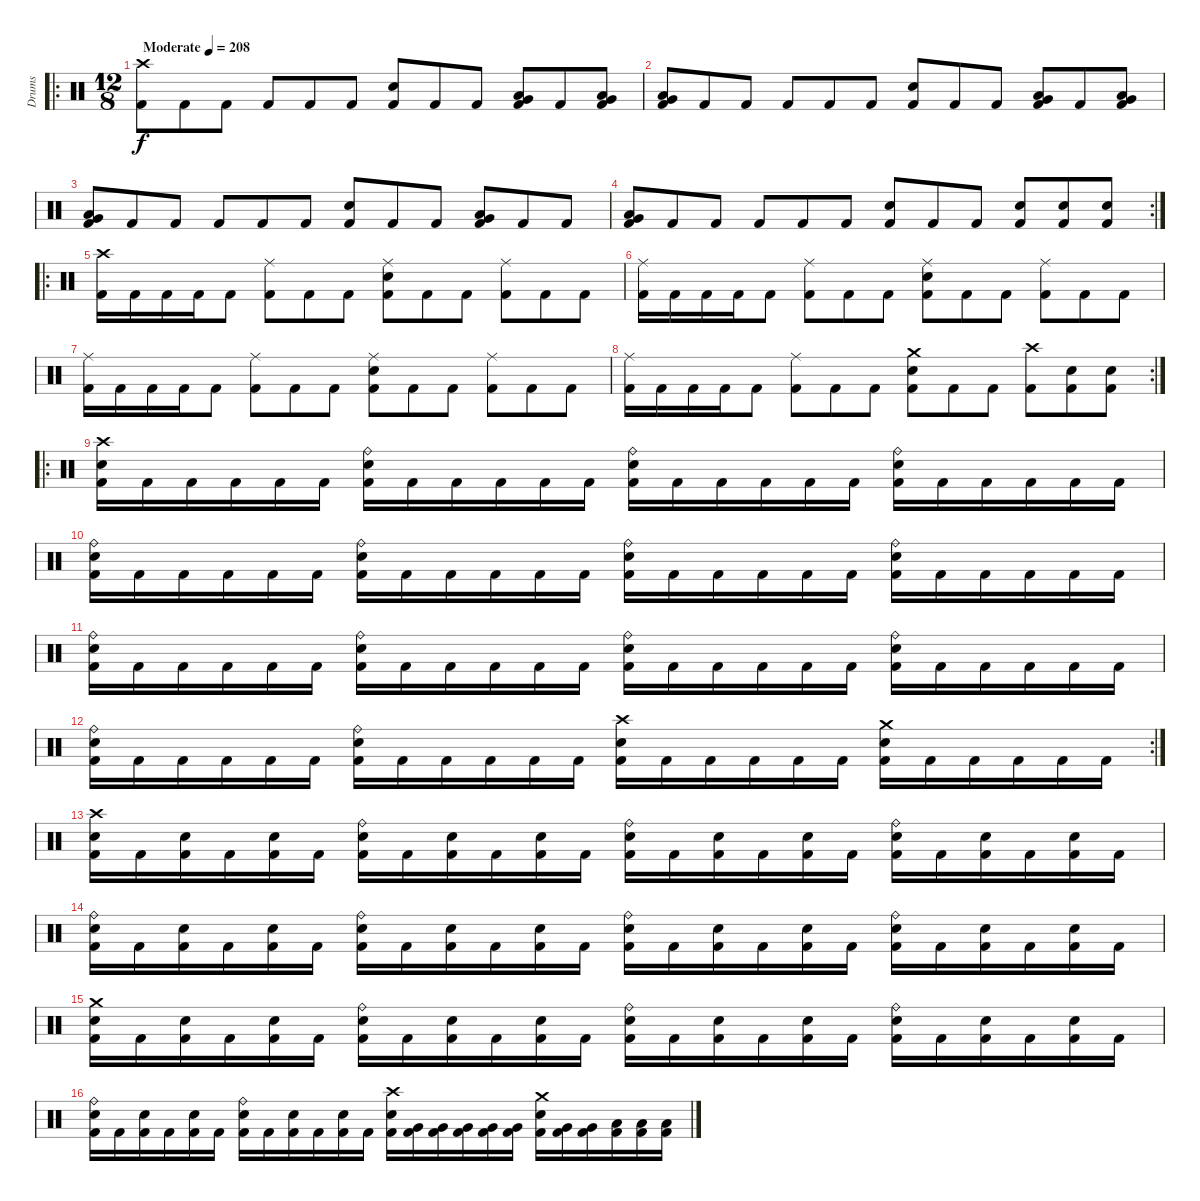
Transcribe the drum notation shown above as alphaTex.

\track ("Drums" "Drums") {instrument percussion}
\staff {score}
\articulation defaults
\ro
\ts (12 8)
\tempo (208 "Moderate")
\clef neutral
\ks c
("Crash high (hit)" "Kick (hit) 2").8{dy f} "Kick (hit) 2".8 "Kick (hit) 2".8 "Kick (hit) 2".8 "Kick (hit) 2".8 "Kick (hit) 2".8 ("Electric Snare (hit)" "Kick (hit) 2").8 "Kick (hit) 2".8 "Kick (hit) 2".8 ("Low Tom (hit)" "Very Low Tom (hit)" "Kick (hit) 2").8 "Kick (hit) 2".8 ("Low Tom (hit)" "Very Low Tom (hit)" "Kick (hit) 2").8 |
("Very Low Tom (hit)" "Low Floor Tom (hit)" "Kick (hit) 2").8 "Kick (hit) 2".8 "Kick (hit) 2".8 "Kick (hit) 2".8 "Kick (hit) 2".8 "Kick (hit) 2".8 ("Electric Snare (hit)" "Kick (hit) 2").8 "Kick (hit) 2".8 "Kick (hit) 2".8 ("Low Tom (hit)" "Very Low Tom (hit)" "Kick (hit) 2").8 "Kick (hit) 2".8 ("Low Tom (hit)" "Very Low Tom (hit)" "Kick (hit) 2").8 |
("Low Tom (hit)" "Very Low Tom (hit)" "Kick (hit) 2").8 "Kick (hit) 2".8 "Kick (hit) 2".8 "Kick (hit) 2".8 "Kick (hit) 2".8 "Kick (hit) 2".8 ("Electric Snare (hit)" "Kick (hit) 2").8 "Kick (hit) 2".8 "Kick (hit) 2".8 ("Low Tom (hit)" "Very Low Tom (hit)" "Kick (hit) 2").8 "Kick (hit) 2".8 "Kick (hit) 2".8 |
\rc 2
("Very Low Tom (hit)" "Low Floor Tom (hit)" "Kick (hit) 2").8 "Kick (hit) 2".8 "Kick (hit) 2".8 "Kick (hit) 2".8 "Kick (hit) 2".8 "Kick (hit) 2".8 ("Electric Snare (hit)" "Kick (hit) 2").8 "Kick (hit) 2".8 "Kick (hit) 2".8 ("Electric Snare (hit)" "Kick (hit) 2").8 ("Electric Snare (hit)" "Kick (hit) 2").8 ("Electric Snare (hit)" "Kick (hit) 2").8 |
\ro
("Crash high (hit)" "Kick (hit) 2").16 "Kick (hit) 2".16 "Kick (hit) 2".16 "Kick (hit) 2".16 "Kick (hit) 2".8 ("Ride (middle)" "Kick (hit) 2").8 "Kick (hit) 2".8 "Kick (hit) 2".8 ("Ride (middle)" "Electric Snare (hit)" "Kick (hit) 2").8 "Kick (hit) 2".8 "Kick (hit) 2".8 ("Ride (middle)" "Kick (hit) 2").8 "Kick (hit) 2".8 "Kick (hit) 2".8 |
("Ride (middle)" "Kick (hit) 2").16 "Kick (hit) 2".16 "Kick (hit) 2".16 "Kick (hit) 2".16 "Kick (hit) 2".8 ("Ride (middle)" "Kick (hit) 2").8 "Kick (hit) 2".8 "Kick (hit) 2".8 ("Ride (middle)" "Electric Snare (hit)" "Kick (hit) 2").8 "Kick (hit) 2".8 "Kick (hit) 2".8 ("Ride (middle)" "Kick (hit) 2").8 "Kick (hit) 2".8 "Kick (hit) 2".8 |
("Ride (middle)" "Kick (hit) 2").16 "Kick (hit) 2".16 "Kick (hit) 2".16 "Kick (hit) 2".16 "Kick (hit) 2".8 ("Ride (middle)" "Kick (hit) 2").8 "Kick (hit) 2".8 "Kick (hit) 2".8 ("Ride (middle)" "Electric Snare (hit)" "Kick (hit) 2").8 "Kick (hit) 2".8 "Kick (hit) 2".8 ("Ride (middle)" "Kick (hit) 2").8 "Kick (hit) 2".8 "Kick (hit) 2".8 |
\rc 2
("Ride (middle)" "Kick (hit) 2").16 "Kick (hit) 2".16 "Kick (hit) 2".16 "Kick (hit) 2".16 "Kick (hit) 2".8 ("Ride (middle)" "Kick (hit) 2").8 "Kick (hit) 2".8 "Kick (hit) 2".8 ("Crash medium (hit)" "Electric Snare (hit)" "Kick (hit) 2").8 "Kick (hit) 2".8 "Kick (hit) 2".8 ("Crash high (hit)" "Kick (hit) 2").8 ("Electric Snare (hit)" "Kick (hit) 2").8 ("Electric Snare (hit)" "Kick (hit) 2").8 |
\ro
("Crash high (hit)" "Electric Snare (hit)" "Kick (hit) 2").16 "Kick (hit) 2".16 "Kick (hit) 2".16 "Kick (hit) 2".16 "Kick (hit) 2".16 "Kick (hit) 2".16 ("Ride (bell)" "Electric Snare (hit)" "Kick (hit) 2").16 "Kick (hit) 2".16 "Kick (hit) 2".16 "Kick (hit) 2".16 "Kick (hit) 2".16 "Kick (hit) 2".16 ("Ride (bell)" "Electric Snare (hit)" "Kick (hit) 2").16 "Kick (hit) 2".16 "Kick (hit) 2".16 "Kick (hit) 2".16 "Kick (hit) 2".16 "Kick (hit) 2".16 ("Ride (bell)" "Electric Snare (hit)" "Kick (hit) 2").16 "Kick (hit) 2".16 "Kick (hit) 2".16 "Kick (hit) 2".16 "Kick (hit) 2".16 "Kick (hit) 2".16 |
("Ride (bell)" "Electric Snare (hit)" "Kick (hit) 2").16 "Kick (hit) 2".16 "Kick (hit) 2".16 "Kick (hit) 2".16 "Kick (hit) 2".16 "Kick (hit) 2".16 ("Ride (bell)" "Electric Snare (hit)" "Kick (hit) 2").16 "Kick (hit) 2".16 "Kick (hit) 2".16 "Kick (hit) 2".16 "Kick (hit) 2".16 "Kick (hit) 2".16 ("Ride (bell)" "Electric Snare (hit)" "Kick (hit) 2").16 "Kick (hit) 2".16 "Kick (hit) 2".16 "Kick (hit) 2".16 "Kick (hit) 2".16 "Kick (hit) 2".16 ("Ride (bell)" "Electric Snare (hit)" "Kick (hit) 2").16 "Kick (hit) 2".16 "Kick (hit) 2".16 "Kick (hit) 2".16 "Kick (hit) 2".16 "Kick (hit) 2".16 |
("Ride (bell)" "Electric Snare (hit)" "Kick (hit) 2").16 "Kick (hit) 2".16 "Kick (hit) 2".16 "Kick (hit) 2".16 "Kick (hit) 2".16 "Kick (hit) 2".16 ("Ride (bell)" "Electric Snare (hit)" "Kick (hit) 2").16 "Kick (hit) 2".16 "Kick (hit) 2".16 "Kick (hit) 2".16 "Kick (hit) 2".16 "Kick (hit) 2".16 ("Ride (bell)" "Electric Snare (hit)" "Kick (hit) 2").16 "Kick (hit) 2".16 "Kick (hit) 2".16 "Kick (hit) 2".16 "Kick (hit) 2".16 "Kick (hit) 2".16 ("Ride (bell)" "Electric Snare (hit)" "Kick (hit) 2").16 "Kick (hit) 2".16 "Kick (hit) 2".16 "Kick (hit) 2".16 "Kick (hit) 2".16 "Kick (hit) 2".16 |
\rc 2
("Ride (bell)" "Electric Snare (hit)" "Kick (hit) 2").16 "Kick (hit) 2".16 "Kick (hit) 2".16 "Kick (hit) 2".16 "Kick (hit) 2".16 "Kick (hit) 2".16 ("Ride (bell)" "Electric Snare (hit)" "Kick (hit) 2").16 "Kick (hit) 2".16 "Kick (hit) 2".16 "Kick (hit) 2".16 "Kick (hit) 2".16 "Kick (hit) 2".16 ("Crash high (hit)" "Electric Snare (hit)" "Kick (hit) 2").16 "Kick (hit) 2".16 "Kick (hit) 2".16 "Kick (hit) 2".16 "Kick (hit) 2".16 "Kick (hit) 2".16 ("Crash medium (hit)" "Electric Snare (hit)" "Kick (hit) 2").16 "Kick (hit) 2".16 "Kick (hit) 2".16 "Kick (hit) 2".16 "Kick (hit) 2".16 "Kick (hit) 2".16 |
("Crash high (hit)" "Electric Snare (hit)" "Kick (hit) 2").16 "Kick (hit) 2".16 ("Electric Snare (hit)" "Kick (hit) 2").16 "Kick (hit) 2".16 ("Electric Snare (hit)" "Kick (hit) 2").16 "Kick (hit) 2".16 ("Ride (bell)" "Electric Snare (hit)" "Kick (hit) 2").16 "Kick (hit) 2".16 ("Electric Snare (hit)" "Kick (hit) 2").16 "Kick (hit) 2".16 ("Electric Snare (hit)" "Kick (hit) 2").16 "Kick (hit) 2".16 ("Ride (bell)" "Electric Snare (hit)" "Kick (hit) 2").16 "Kick (hit) 2".16 ("Electric Snare (hit)" "Kick (hit) 2").16 "Kick (hit) 2".16 ("Electric Snare (hit)" "Kick (hit) 2").16 "Kick (hit) 2".16 ("Ride (bell)" "Electric Snare (hit)" "Kick (hit) 2").16 "Kick (hit) 2".16 ("Electric Snare (hit)" "Kick (hit) 2").16 "Kick (hit) 2".16 ("Electric Snare (hit)" "Kick (hit) 2").16 "Kick (hit) 2".16 |
("Ride (bell)" "Electric Snare (hit)" "Kick (hit) 2").16 "Kick (hit) 2".16 ("Electric Snare (hit)" "Kick (hit) 2").16 "Kick (hit) 2".16 ("Electric Snare (hit)" "Kick (hit) 2").16 "Kick (hit) 2".16 ("Ride (bell)" "Electric Snare (hit)" "Kick (hit) 2").16 "Kick (hit) 2".16 ("Electric Snare (hit)" "Kick (hit) 2").16 "Kick (hit) 2".16 ("Electric Snare (hit)" "Kick (hit) 2").16 "Kick (hit) 2".16 ("Ride (bell)" "Electric Snare (hit)" "Kick (hit) 2").16 "Kick (hit) 2".16 ("Electric Snare (hit)" "Kick (hit) 2").16 "Kick (hit) 2".16 ("Electric Snare (hit)" "Kick (hit) 2").16 "Kick (hit) 2".16 ("Ride (bell)" "Electric Snare (hit)" "Kick (hit) 2").16 "Kick (hit) 2".16 ("Electric Snare (hit)" "Kick (hit) 2").16 "Kick (hit) 2".16 ("Electric Snare (hit)" "Kick (hit) 2").16 "Kick (hit) 2".16 |
("Crash medium (hit)" "Electric Snare (hit)" "Kick (hit) 2").16 "Kick (hit) 2".16 ("Electric Snare (hit)" "Kick (hit) 2").16 "Kick (hit) 2".16 ("Electric Snare (hit)" "Kick (hit) 2").16 "Kick (hit) 2".16 ("Ride (bell)" "Electric Snare (hit)" "Kick (hit) 2").16 "Kick (hit) 2".16 ("Electric Snare (hit)" "Kick (hit) 2").16 "Kick (hit) 2".16 ("Electric Snare (hit)" "Kick (hit) 2").16 "Kick (hit) 2".16 ("Ride (bell)" "Electric Snare (hit)" "Kick (hit) 2").16 "Kick (hit) 2".16 ("Electric Snare (hit)" "Kick (hit) 2").16 "Kick (hit) 2".16 ("Electric Snare (hit)" "Kick (hit) 2").16 "Kick (hit) 2".16 ("Ride (bell)" "Electric Snare (hit)" "Kick (hit) 2").16 "Kick (hit) 2".16 ("Electric Snare (hit)" "Kick (hit) 2").16 "Kick (hit) 2".16 ("Electric Snare (hit)" "Kick (hit) 2").16 "Kick (hit) 2".16 |
("Ride (bell)" "Electric Snare (hit)" "Kick (hit) 2").16 "Kick (hit) 2".16 ("Electric Snare (hit)" "Kick (hit) 2").16 "Kick (hit) 2".16 ("Electric Snare (hit)" "Kick (hit) 2").16 "Kick (hit) 2".16 ("Ride (bell)" "Electric Snare (hit)" "Kick (hit) 2").16 "Kick (hit) 2".16 ("Electric Snare (hit)" "Kick (hit) 2").16 "Kick (hit) 2".16 ("Electric Snare (hit)" "Kick (hit) 2").16 "Kick (hit) 2".16 ("Crash high (hit)" "Electric Snare (hit)" "Kick (hit) 2").16 ("Very Low Tom (hit)" "Kick (hit) 2").16 ("Very Low Tom (hit)" "Kick (hit) 2").16 ("Very Low Tom (hit)" "Kick (hit) 2").16 ("Very Low Tom (hit)" "Kick (hit) 2").16 ("Very Low Tom (hit)" "Kick (hit) 2").16 ("Crash medium (hit)" "Electric Snare (hit)" "Kick (hit) 2").16 ("Very Low Tom (hit)" "Kick (hit) 2").16 ("Very Low Tom (hit)" "Kick (hit) 2").16 ("Low Floor Tom (hit)" "Kick (hit) 2").16 ("Low Floor Tom (hit)" "Kick (hit) 2").16 ("Low Floor Tom (hit)" "Kick (hit) 2").16
